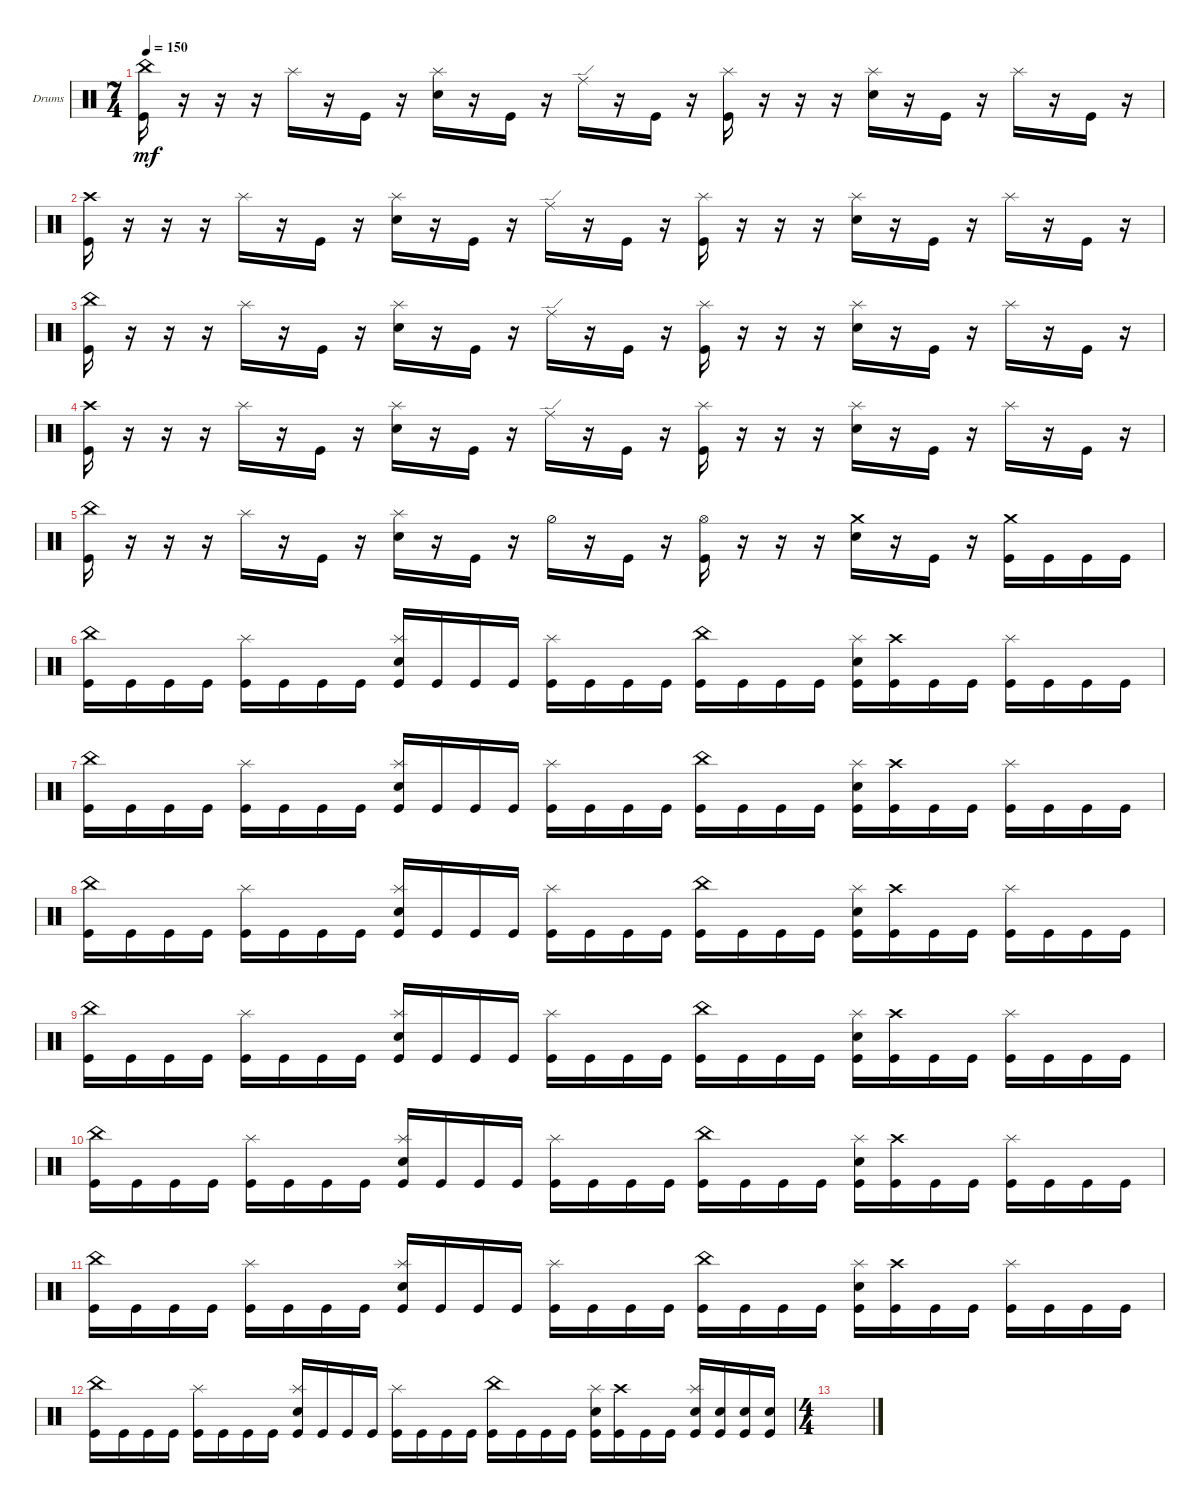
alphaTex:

\defaultSystemsLayout 4
\bracketExtendMode groupsimilarinstruments
\firstSystemTrackNameOrientation horizontal
\otherSystemsTrackNameOrientation horizontal
\track ("Drumkit" "Drums") {instrument percussion}
\staff {score}
\articulation defaults
\ts (7 4)
\tempo 150
\clef neutral
\ks c
("Kick (hit)" "China (hit)").16{dy mf} r.16 r.16 r.16 "Splash (hit)".16 r.16 "Kick (hit)".16 r.16 ("Snare (hit) 2" "Splash (hit)").16 r.16 "Kick (hit)".16 r.16 "Ride (edge)".16 r.16 "Kick (hit)".16 r.16 ("Kick (hit)" "Splash (hit)").16 r.16 r.16 r.16 ("Snare (hit) 2" "Splash (hit)").16 r.16 "Kick (hit)".16 r.16 "Splash (hit)".16 r.16 "Kick (hit)".16 r.16 |
("Kick (hit)" "Crash high (hit)").16 r.16 r.16 r.16 "Splash (hit)".16 r.16 "Kick (hit)".16 r.16 ("Snare (hit) 2" "Splash (hit)").16 r.16 "Kick (hit)".16 r.16 "Ride (edge)".16 r.16 "Kick (hit)".16 r.16 ("Kick (hit)" "Splash (hit)").16 r.16 r.16 r.16 ("Snare (hit) 2" "Splash (hit)").16 r.16 "Kick (hit)".16 r.16 "Splash (hit)".16 r.16 "Kick (hit)".16 r.16 |
("Kick (hit)" "China (hit)").16 r.16 r.16 r.16 "Splash (hit)".16 r.16 "Kick (hit)".16 r.16 ("Snare (hit) 2" "Splash (hit)").16 r.16 "Kick (hit)".16 r.16 "Ride (edge)".16 r.16 "Kick (hit)".16 r.16 ("Kick (hit)" "Splash (hit)").16 r.16 r.16 r.16 ("Snare (hit) 2" "Splash (hit)").16 r.16 "Kick (hit)".16 r.16 "Splash (hit)".16 r.16 "Kick (hit)".16 r.16 |
("Kick (hit)" "Crash high (hit)").16 r.16 r.16 r.16 "Splash (hit)".16 r.16 "Kick (hit)".16 r.16 ("Snare (hit) 2" "Splash (hit)").16 r.16 "Kick (hit)".16 r.16 "Ride (edge)".16 r.16 "Kick (hit)".16 r.16 ("Kick (hit)" "Splash (hit)").16 r.16 r.16 r.16 ("Snare (hit) 2" "Splash (hit)").16 r.16 "Kick (hit)".16 r.16 "Splash (hit)".16 r.16 "Kick (hit)".16 r.16 |
("Kick (hit)" "China (hit)").16 r.16 r.16 r.16 "Splash (hit)".16 r.16 "Kick (hit)".16 r.16 ("Snare (hit) 2" "Splash (hit)").16 r.16 "Kick (hit)".16 r.16 "Hi-Hat (half)".16 r.16 "Kick (hit)".16 r.16 ("Kick (hit)" "Hi-Hat (open)").16 r.16 r.16 r.16 ("Snare (hit) 2" "Crash medium (hit)").16 r.16 "Kick (hit)".16 r.16 ("Kick (hit)" "Crash medium (hit)").16 "Kick (hit)".16 "Kick (hit)".16 "Kick (hit)".16 |
("Kick (hit)" "China (hit)").16 "Kick (hit)".16 "Kick (hit)".16 "Kick (hit)".16 ("Kick (hit)" "Splash (hit)").16 "Kick (hit)".16 "Kick (hit)".16 "Kick (hit)".16 ("Kick (hit)" "Splash (hit)" "Snare (hit) 2").16 "Kick (hit)".16 "Kick (hit)".16 "Kick (hit)".16 ("Kick (hit)" "Splash (hit)").16 "Kick (hit)".16 "Kick (hit)".16 "Kick (hit)".16 ("Kick (hit)" "China (hit)").16 "Kick (hit)".16 "Kick (hit)".16 "Kick (hit)".16 ("Kick (hit)" "Splash (hit)" "Snare (hit) 2").16 ("Kick (hit)" "Crash high (hit)").16 "Kick (hit)".16 "Kick (hit)".16 ("Kick (hit)" "Splash (hit)").16 "Kick (hit)".16 "Kick (hit)".16 "Kick (hit)".16 |
("Kick (hit)" "China (hit)").16 "Kick (hit)".16 "Kick (hit)".16 "Kick (hit)".16 ("Kick (hit)" "Splash (hit)").16 "Kick (hit)".16 "Kick (hit)".16 "Kick (hit)".16 ("Kick (hit)" "Splash (hit)" "Snare (hit) 2").16 "Kick (hit)".16 "Kick (hit)".16 "Kick (hit)".16 ("Kick (hit)" "Splash (hit)").16 "Kick (hit)".16 "Kick (hit)".16 "Kick (hit)".16 ("Kick (hit)" "China (hit)").16 "Kick (hit)".16 "Kick (hit)".16 "Kick (hit)".16 ("Kick (hit)" "Splash (hit)" "Snare (hit) 2").16 ("Kick (hit)" "Crash high (hit)").16 "Kick (hit)".16 "Kick (hit)".16 ("Kick (hit)" "Splash (hit)").16 "Kick (hit)".16 "Kick (hit)".16 "Kick (hit)".16 |
("Kick (hit)" "China (hit)").16 "Kick (hit)".16 "Kick (hit)".16 "Kick (hit)".16 ("Kick (hit)" "Splash (hit)").16 "Kick (hit)".16 "Kick (hit)".16 "Kick (hit)".16 ("Kick (hit)" "Splash (hit)" "Snare (hit) 2").16 "Kick (hit)".16 "Kick (hit)".16 "Kick (hit)".16 ("Kick (hit)" "Splash (hit)").16 "Kick (hit)".16 "Kick (hit)".16 "Kick (hit)".16 ("Kick (hit)" "China (hit)").16 "Kick (hit)".16 "Kick (hit)".16 "Kick (hit)".16 ("Kick (hit)" "Splash (hit)" "Snare (hit) 2").16 ("Kick (hit)" "Crash high (hit)").16 "Kick (hit)".16 "Kick (hit)".16 ("Kick (hit)" "Splash (hit)").16 "Kick (hit)".16 "Kick (hit)".16 "Kick (hit)".16 |
("Kick (hit)" "China (hit)").16 "Kick (hit)".16 "Kick (hit)".16 "Kick (hit)".16 ("Kick (hit)" "Splash (hit)").16 "Kick (hit)".16 "Kick (hit)".16 "Kick (hit)".16 ("Kick (hit)" "Splash (hit)" "Snare (hit) 2").16 "Kick (hit)".16 "Kick (hit)".16 "Kick (hit)".16 ("Kick (hit)" "Splash (hit)").16 "Kick (hit)".16 "Kick (hit)".16 "Kick (hit)".16 ("Kick (hit)" "China (hit)").16 "Kick (hit)".16 "Kick (hit)".16 "Kick (hit)".16 ("Kick (hit)" "Splash (hit)" "Snare (hit) 2").16 ("Kick (hit)" "Crash high (hit)").16 "Kick (hit)".16 "Kick (hit)".16 ("Kick (hit)" "Splash (hit)").16 "Kick (hit)".16 "Kick (hit)".16 "Kick (hit)".16 |
("Kick (hit)" "China (hit)").16 "Kick (hit)".16 "Kick (hit)".16 "Kick (hit)".16 ("Kick (hit)" "Splash (hit)").16 "Kick (hit)".16 "Kick (hit)".16 "Kick (hit)".16 ("Kick (hit)" "Splash (hit)" "Snare (hit) 2").16 "Kick (hit)".16 "Kick (hit)".16 "Kick (hit)".16 ("Kick (hit)" "Splash (hit)").16 "Kick (hit)".16 "Kick (hit)".16 "Kick (hit)".16 ("Kick (hit)" "China (hit)").16 "Kick (hit)".16 "Kick (hit)".16 "Kick (hit)".16 ("Kick (hit)" "Splash (hit)" "Snare (hit) 2").16 ("Kick (hit)" "Crash high (hit)").16 "Kick (hit)".16 "Kick (hit)".16 ("Kick (hit)" "Splash (hit)").16 "Kick (hit)".16 "Kick (hit)".16 "Kick (hit)".16 |
("Kick (hit)" "China (hit)").16 "Kick (hit)".16 "Kick (hit)".16 "Kick (hit)".16 ("Kick (hit)" "Splash (hit)").16 "Kick (hit)".16 "Kick (hit)".16 "Kick (hit)".16 ("Kick (hit)" "Splash (hit)" "Snare (hit) 2").16 "Kick (hit)".16 "Kick (hit)".16 "Kick (hit)".16 ("Kick (hit)" "Splash (hit)").16 "Kick (hit)".16 "Kick (hit)".16 "Kick (hit)".16 ("Kick (hit)" "China (hit)").16 "Kick (hit)".16 "Kick (hit)".16 "Kick (hit)".16 ("Kick (hit)" "Splash (hit)" "Snare (hit) 2").16 ("Kick (hit)" "Crash high (hit)").16 "Kick (hit)".16 "Kick (hit)".16 ("Kick (hit)" "Splash (hit)").16 "Kick (hit)".16 "Kick (hit)".16 "Kick (hit)".16 |
("Kick (hit)" "China (hit)").16 "Kick (hit)".16 "Kick (hit)".16 "Kick (hit)".16 ("Kick (hit)" "Splash (hit)").16 "Kick (hit)".16 "Kick (hit)".16 "Kick (hit)".16 ("Kick (hit)" "Splash (hit)" "Snare (hit) 2").16 "Kick (hit)".16 "Kick (hit)".16 "Kick (hit)".16 ("Kick (hit)" "Splash (hit)").16 "Kick (hit)".16 "Kick (hit)".16 "Kick (hit)".16 ("Kick (hit)" "China (hit)").16 "Kick (hit)".16 "Kick (hit)".16 "Kick (hit)".16 ("Kick (hit)" "Splash (hit)" "Snare (hit) 2").16 ("Kick (hit)" "Crash high (hit)").16 "Kick (hit)".16 "Kick (hit)".16 ("Kick (hit)" "Splash (hit)" "Snare (hit) 2").16 ("Kick (hit)" "Snare (hit) 2").16 ("Kick (hit)" "Snare (hit) 2").16 ("Kick (hit)" "Snare (hit) 2").16 |
\ts (4 4)
